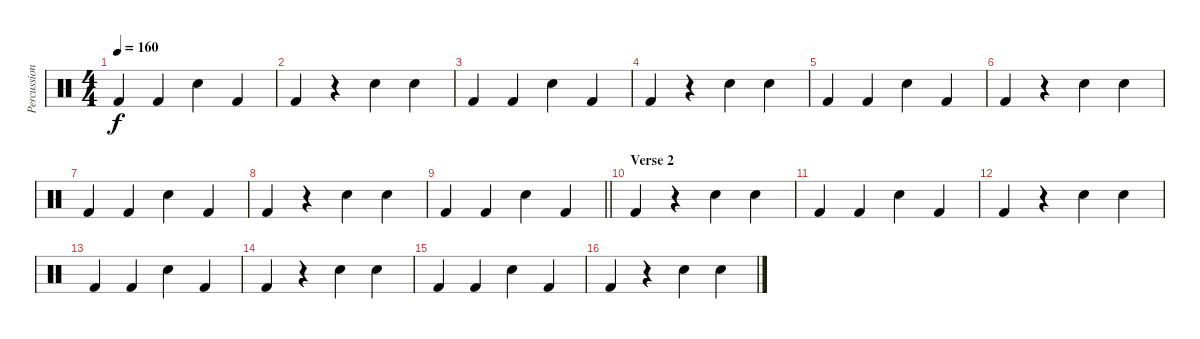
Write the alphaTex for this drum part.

\track ("Percussion" "Percussion") {instrument percussion}
\staff {score}
\articulation defaults
\ts (4 4)
\tempo 160
\clef neutral
\ks c "Kick (hit) 2".4{dy f} "Kick (hit) 2".4 "Electric Snare (hit)".4 "Kick (hit) 2".4
|
"Kick (hit) 2".4 r.4 "Electric Snare (hit)".4 "Electric Snare (hit)".4 |
"Kick (hit) 2".4 "Kick (hit) 2".4 "Electric Snare (hit)".4 "Kick (hit) 2".4 |
"Kick (hit) 2".4 r.4 "Electric Snare (hit)".4 "Electric Snare (hit)".4 |
"Kick (hit) 2".4 "Kick (hit) 2".4 "Electric Snare (hit)".4 "Kick (hit) 2".4 |
"Kick (hit) 2".4 r.4 "Electric Snare (hit)".4 "Electric Snare (hit)".4 |
"Kick (hit) 2".4 "Kick (hit) 2".4 "Electric Snare (hit)".4 "Kick (hit) 2".4 |
"Kick (hit) 2".4 r.4 "Electric Snare (hit)".4 "Electric Snare (hit)".4 |
\barLineRight lightlight "Kick (hit) 2".4 "Kick (hit) 2".4 "Electric Snare (hit)".4 "Kick (hit) 2".4
|
\section ("" "Verse 2")
"Kick (hit) 2".4 r.4 "Electric Snare (hit)".4 "Electric Snare (hit)".4 |
"Kick (hit) 2".4 "Kick (hit) 2".4 "Electric Snare (hit)".4 "Kick (hit) 2".4 |
"Kick (hit) 2".4 r.4 "Electric Snare (hit)".4 "Electric Snare (hit)".4 |
"Kick (hit) 2".4 "Kick (hit) 2".4 "Electric Snare (hit)".4 "Kick (hit) 2".4 |
"Kick (hit) 2".4 r.4 "Electric Snare (hit)".4 "Electric Snare (hit)".4 |
"Kick (hit) 2".4 "Kick (hit) 2".4 "Electric Snare (hit)".4 "Kick (hit) 2".4 |
"Kick (hit) 2".4 r.4 "Electric Snare (hit)".4 "Electric Snare (hit)".4
